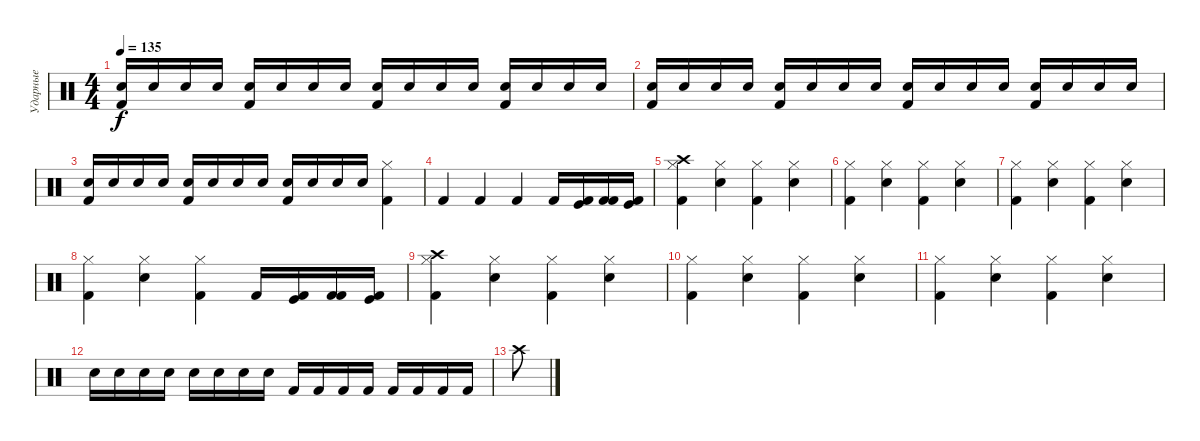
\track ("Ударные" "Ударные") {instrument percussion}
\staff {score}
\articulation defaults
\ts (4 4)
\tempo 135
\clef neutral
\ks c
("Snare (hit) 2" "Kick (hit) 2").16{dy f} "Snare (hit) 2".16 "Snare (hit) 2".16 "Snare (hit) 2".16 ("Snare (hit) 2" "Kick (hit) 2").16 "Snare (hit) 2".16 "Snare (hit) 2".16 "Snare (hit) 2".16 ("Snare (hit) 2" "Kick (hit) 2").16 "Snare (hit) 2".16 "Snare (hit) 2".16 "Snare (hit) 2".16 ("Snare (hit) 2" "Kick (hit) 2").16 "Snare (hit) 2".16 "Snare (hit) 2".16 "Snare (hit) 2".16 |
("Snare (hit) 2" "Kick (hit) 2").16 "Snare (hit) 2".16 "Snare (hit) 2".16 "Snare (hit) 2".16 ("Snare (hit) 2" "Kick (hit) 2").16 "Snare (hit) 2".16 "Snare (hit) 2".16 "Snare (hit) 2".16 ("Snare (hit) 2" "Kick (hit) 2").16 "Snare (hit) 2".16 "Snare (hit) 2".16 "Snare (hit) 2".16 ("Snare (hit) 2" "Kick (hit) 2").16 "Snare (hit) 2".16 "Snare (hit) 2".16 "Snare (hit) 2".16 |
("Snare (hit) 2" "Kick (hit) 2").16 "Snare (hit) 2".16 "Snare (hit) 2".16 "Snare (hit) 2".16 ("Snare (hit) 2" "Kick (hit) 2").16 "Snare (hit) 2".16 "Snare (hit) 2".16 "Snare (hit) 2".16 ("Snare (hit) 2" "Kick (hit) 2").16 "Snare (hit) 2".16 "Snare (hit) 2".16 "Snare (hit) 2".16 ("Hi-Hat (closed)" "Kick (hit) 2").4 |
"Kick (hit) 2".4 "Kick (hit) 2".4 "Kick (hit) 2".4 "Kick (hit) 2".16 ("Kick (hit)" "Kick (hit) 2").16 ("Kick (hit) 2" "Kick (hit) 2").16 ("Kick (hit)" "Kick (hit) 2").16 |
("Crash high (hit)" "Kick (hit) 2" "Hi-Hat (closed)").4 ("Snare (hit) 2" "Hi-Hat (closed)").4 ("Kick (hit) 2" "Hi-Hat (closed)").4 ("Snare (hit) 2" "Hi-Hat (closed)").4 |
("Kick (hit) 2" "Hi-Hat (closed)").4 ("Snare (hit) 2" "Hi-Hat (closed)").4 ("Kick (hit) 2" "Hi-Hat (closed)").4 ("Snare (hit) 2" "Hi-Hat (closed)").4 |
("Kick (hit) 2" "Hi-Hat (closed)").4 ("Snare (hit) 2" "Hi-Hat (closed)").4 ("Kick (hit) 2" "Hi-Hat (closed)").4 ("Snare (hit) 2" "Hi-Hat (closed)").4 |
("Kick (hit) 2" "Hi-Hat (closed)").4 ("Snare (hit) 2" "Hi-Hat (closed)").4 ("Kick (hit) 2" "Hi-Hat (closed)").4 "Kick (hit) 2".16 ("Kick (hit)" "Kick (hit) 2").16 ("Kick (hit) 2" "Kick (hit) 2").16 ("Kick (hit)" "Kick (hit) 2").16 |
("Crash high (hit)" "Kick (hit) 2" "Hi-Hat (closed)").4 ("Snare (hit) 2" "Hi-Hat (closed)").4 ("Kick (hit) 2" "Hi-Hat (closed)").4 ("Snare (hit) 2" "Hi-Hat (closed)").4 |
("Kick (hit) 2" "Hi-Hat (closed)").4 ("Snare (hit) 2" "Hi-Hat (closed)").4 ("Kick (hit) 2" "Hi-Hat (closed)").4 ("Snare (hit) 2" "Hi-Hat (closed)").4 |
("Kick (hit) 2" "Hi-Hat (closed)").4 ("Snare (hit) 2" "Hi-Hat (closed)").4 ("Kick (hit) 2" "Hi-Hat (closed)").4 ("Snare (hit) 2" "Hi-Hat (closed)").4 |
"Snare (hit) 2".16 "Snare (hit) 2".16 "Snare (hit) 2".16 "Snare (hit) 2".16 "Snare (hit) 2".16 "Snare (hit) 2".16 "Snare (hit) 2".16 "Snare (hit) 2".16 "Kick (hit) 2".16 "Kick (hit) 2".16 "Kick (hit) 2".16 "Kick (hit) 2".16 "Kick (hit) 2".16 "Kick (hit) 2".16 "Kick (hit) 2".16 "Kick (hit) 2".16 |
"Crash high (hit)".8
